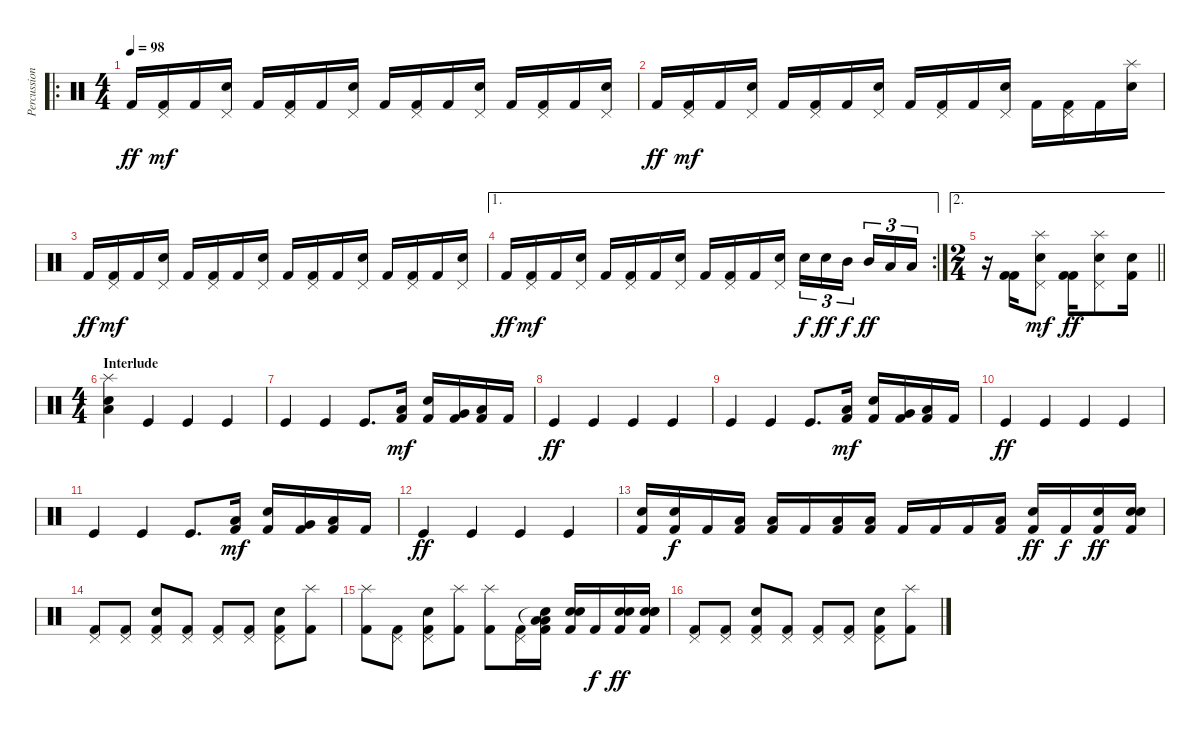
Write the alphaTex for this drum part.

\track ("Percussion" "Percussion") {instrument percussion}
\staff {score}
\articulation defaults
\ro
\ts (4 4)
\tempo 98
\clef neutral
\ks c "Kick (hit) 2".16{dy ff}
("Pedal Hi-Hat (hit)" "Kick (hit) 2").16{dy mf} "Kick (hit) 2".16 ("Pedal Hi-Hat (hit)" "Snare (hit) 2").16 "Kick (hit) 2".16 ("Pedal Hi-Hat (hit)" "Kick (hit) 2").16 "Kick (hit) 2".16 ("Pedal Hi-Hat (hit)" "Snare (hit) 2").16 "Kick (hit) 2".16 ("Pedal Hi-Hat (hit)" "Kick (hit) 2").16 "Kick (hit) 2".16 ("Pedal Hi-Hat (hit)" "Snare (hit) 2").16 "Kick (hit) 2".16 ("Pedal Hi-Hat (hit)" "Kick (hit) 2").16 "Kick (hit) 2".16 ("Pedal Hi-Hat (hit)" "Snare (hit) 2").16 |
"Kick (hit) 2".16{dy ff} ("Pedal Hi-Hat (hit)" "Kick (hit) 2").16{dy mf} "Kick (hit) 2".16 ("Pedal Hi-Hat (hit)" "Snare (hit) 2").16 "Kick (hit) 2".16 ("Pedal Hi-Hat (hit)" "Kick (hit) 2").16 "Kick (hit) 2".16 ("Pedal Hi-Hat (hit)" "Snare (hit) 2").16 "Kick (hit) 2".16 ("Pedal Hi-Hat (hit)" "Kick (hit) 2").16 "Kick (hit) 2".16 ("Pedal Hi-Hat (hit)" "Snare (hit) 2").16 "Kick (hit) 2".16 ("Pedal Hi-Hat (hit)" "Kick (hit) 2").16 "Kick (hit) 2".16 ("Splash (hit)" "Snare (hit) 2").16 |
"Kick (hit) 2".16{dy ff} ("Pedal Hi-Hat (hit)" "Kick (hit) 2").16{dy mf} "Kick (hit) 2".16 ("Pedal Hi-Hat (hit)" "Snare (hit) 2").16 "Kick (hit) 2".16 ("Pedal Hi-Hat (hit)" "Kick (hit) 2").16 "Kick (hit) 2".16 ("Pedal Hi-Hat (hit)" "Snare (hit) 2").16 "Kick (hit) 2".16 ("Pedal Hi-Hat (hit)" "Kick (hit) 2").16 "Kick (hit) 2".16 ("Pedal Hi-Hat (hit)" "Snare (hit) 2").16 "Kick (hit) 2".16 ("Pedal Hi-Hat (hit)" "Kick (hit) 2").16 "Kick (hit) 2".16 ("Pedal Hi-Hat (hit)" "Snare (hit) 2").16 |
\ae 1
\rc 2 "Kick (hit) 2".16{dy ff}
("Pedal Hi-Hat (hit)" "Kick (hit) 2").16{dy mf} "Kick (hit) 2".16 ("Pedal Hi-Hat (hit)" "Snare (hit) 2").16 "Kick (hit) 2".16 ("Pedal Hi-Hat (hit)" "Kick (hit) 2").16 "Kick (hit) 2".16 ("Pedal Hi-Hat (hit)" "Snare (hit) 2").16 "Kick (hit) 2".16 ("Pedal Hi-Hat (hit)" "Kick (hit) 2").16 "Kick (hit) 2".16 ("Pedal Hi-Hat (hit)" "Snare (hit) 2").16 "Snare (hit) 2".16{tu (3 2) dy f} "Snare (hit) 2".16{tu (3 2) dy ff} "Mid Tom (hit)".16{tu (3 2) dy f beam splitsecondary} "Mid Tom (hit)".16{tu (3 2) dy ff} "Low Tom (hit)".16{tu (3 2)} "Low Tom (hit)".16{tu (3 2)} |
\ae 2
\ts (2 4)
\barLineRight lightlight
r.16 ("Kick (hit) 2" "Kick (hit) 2").16 ("Splash (hit)" "Pedal Hi-Hat (hit)" "Snare (hit) 2").8{dy mf} ("Kick (hit) 2" "Kick (hit) 2").16{dy ff} ("Splash (hit)" "Pedal Hi-Hat (hit)" "Snare (hit) 2").8 ("Kick (hit) 2" "Snare (hit) 2").16 |
\ts (4 4)
\section ("" "Interlude")
("Splash (hit)" "Low Floor Tom (hit)" "Snare (hit) 2").4 "Kick (hit)".4 "Kick (hit)".4 "Kick (hit)".4 |
"Kick (hit)".4 "Kick (hit)".4 "Kick (hit)".8{d} ("Low Floor Tom (hit)" "Kick (hit) 2").16{dy mf} ("Snare (hit) 2" "Kick (hit) 2").16 ("Very Low Tom (hit)" "Kick (hit) 2").16 ("Low Floor Tom (hit)" "Kick (hit) 2").16 "Kick (hit) 2".16 |
"Kick (hit)".4{dy ff} "Kick (hit)".4 "Kick (hit)".4 "Kick (hit)".4 |
"Kick (hit)".4 "Kick (hit)".4 "Kick (hit)".8{d} ("Low Floor Tom (hit)" "Kick (hit) 2").16{dy mf} ("Snare (hit) 2" "Kick (hit) 2").16 ("Very Low Tom (hit)" "Kick (hit) 2").16 ("Low Floor Tom (hit)" "Kick (hit) 2").16 "Kick (hit) 2".16 |
"Kick (hit)".4{dy ff} "Kick (hit)".4 "Kick (hit)".4 "Kick (hit)".4 |
"Kick (hit)".4 "Kick (hit)".4 "Kick (hit)".8{d} ("Low Floor Tom (hit)" "Kick (hit) 2").16{dy mf} ("Snare (hit) 2" "Kick (hit) 2").16 ("Very Low Tom (hit)" "Kick (hit) 2").16 ("Low Floor Tom (hit)" "Kick (hit) 2").16 "Kick (hit) 2".16 |
"Kick (hit)".4{dy ff} "Kick (hit)".4 "Kick (hit)".4 "Kick (hit)".4 |
("Snare (hit) 2" "Kick (hit) 2").16 ("Snare (hit) 2" "Kick (hit) 2").16{dy f} "Kick (hit) 2".16 ("Low Tom (hit)" "Kick (hit) 2").16 ("Low Tom (hit)" "Kick (hit) 2").16 "Kick (hit) 2".16 ("Low Floor Tom (hit)" "Kick (hit) 2").16 ("Low Floor Tom (hit)" "Kick (hit) 2").16 "Kick (hit) 2".16 "Kick (hit) 2".16 "Kick (hit) 2".16 ("Low Floor Tom (hit)" "Kick (hit) 2").16 ("Snare (hit) 2" "Kick (hit) 2").16{dy ff} "Kick (hit) 2".16{dy f} ("Snare (hit) 2" "Kick (hit) 2").16{dy ff} ("Snare (hit) 2" "Snare (hit) 2" "Kick (hit) 2").16 |
("Pedal Hi-Hat (hit)" "Kick (hit) 2").8 ("Pedal Hi-Hat (hit)" "Kick (hit) 2").8 ("Pedal Hi-Hat (hit)" "Snare (hit) 2" "Kick (hit) 2").8 ("Pedal Hi-Hat (hit)" "Kick (hit) 2").8 ("Pedal Hi-Hat (hit)" "Kick (hit) 2").8 ("Pedal Hi-Hat (hit)" "Kick (hit) 2").8 ("Pedal Hi-Hat (hit)" "Snare (hit) 2" "Kick (hit) 2").8 ("Splash (hit)" "Kick (hit) 2").8 |
("Splash (hit)" "Kick (hit) 2").8 ("Pedal Hi-Hat (hit)" "Kick (hit) 2").8 ("Pedal Hi-Hat (hit)" "Snare (hit) 2" "Kick (hit) 2").8 ("Splash (hit)" "Kick (hit) 2").8 ("Splash (hit)" "Kick (hit) 2").8 ("Pedal Hi-Hat (hit)" "Kick (hit) 2").16 ("Low Floor Tom (hit)" "Snare (hit)"{t} "Low Floor Tom (hit)" "Kick (hit) 2").16 ("Snare (hit) 2" "Snare (hit) 2" "Kick (hit) 2").16 "Kick (hit) 2".16{dy f} ("Snare (hit) 2" "Snare (hit) 2" "Kick (hit) 2").16{dy ff} ("Snare (hit) 2" "Snare (hit) 2" "Snare (hit) 2" "Kick (hit) 2").16 |
("Pedal Hi-Hat (hit)" "Kick (hit) 2").8 ("Pedal Hi-Hat (hit)" "Kick (hit) 2").8 ("Pedal Hi-Hat (hit)" "Snare (hit) 2" "Kick (hit) 2").8 ("Pedal Hi-Hat (hit)" "Kick (hit) 2").8 ("Pedal Hi-Hat (hit)" "Kick (hit) 2").8 ("Pedal Hi-Hat (hit)" "Kick (hit) 2").8 ("Pedal Hi-Hat (hit)" "Snare (hit) 2" "Kick (hit) 2").8 ("Splash (hit)" "Kick (hit) 2").8
